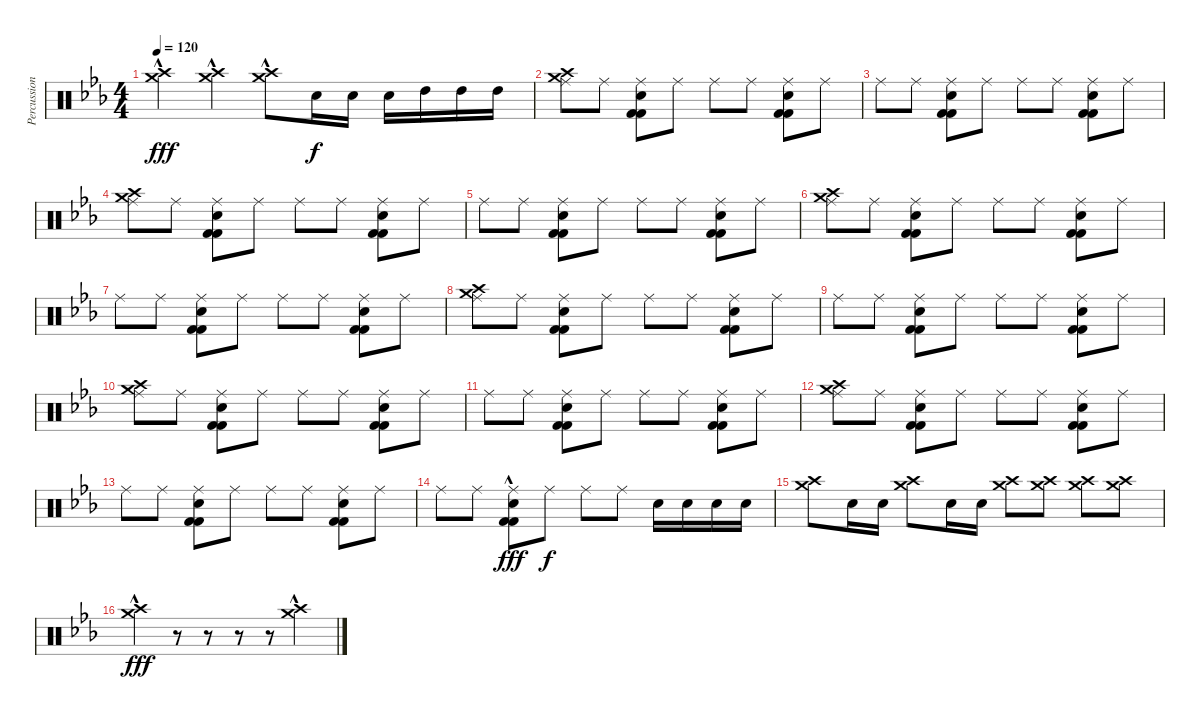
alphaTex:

\track ("Percussion" "Percussion") {instrument percussion}
\staff {score}
\articulation defaults
\ts (4 4)
\tempo 120
\clef neutral
\ks eb
("Crash high (hit)"{hac} "Crash medium (hit)"{hac}).4{dy fff} ("Crash high (hit)"{hac} "Crash medium (hit)"{hac}).4 ("Crash high (hit)"{hac} "Crash medium (hit)"{hac}).8 "Electric Snare (hit)".16{dy f} "Electric Snare (hit)".16 "Electric Snare (hit)".16 "High Tom (hit)".16 "High Tom (hit)".16 "High Tom (hit)".16 |
("Crash high (hit)" "Crash medium (hit)" "Ride (middle)").8 "Ride (middle)".8 ("Ride (middle)" "Electric Snare (hit)" "Kick (hit) 2" "Kick (hit) 2").8 "Ride (middle)".8 "Ride (middle)".8 "Ride (middle)".8 ("Ride (middle)" "Electric Snare (hit)" "Kick (hit) 2" "Kick (hit) 2").8 "Ride (middle)".8 |
"Ride (middle)".8 "Ride (middle)".8 ("Ride (middle)" "Electric Snare (hit)" "Kick (hit) 2" "Kick (hit) 2").8 "Ride (middle)".8 "Ride (middle)".8 "Ride (middle)".8 ("Ride (middle)" "Electric Snare (hit)" "Kick (hit) 2" "Kick (hit) 2").8 "Ride (middle)".8 |
("Crash high (hit)" "Crash medium (hit)" "Ride (middle)").8 "Ride (middle)".8 ("Ride (middle)" "Electric Snare (hit)" "Kick (hit) 2" "Kick (hit) 2").8 "Ride (middle)".8 "Ride (middle)".8 "Ride (middle)".8 ("Ride (middle)" "Electric Snare (hit)" "Kick (hit) 2" "Kick (hit) 2").8 "Ride (middle)".8 |
"Ride (middle)".8 "Ride (middle)".8 ("Ride (middle)" "Electric Snare (hit)" "Kick (hit) 2" "Kick (hit) 2").8 "Ride (middle)".8 "Ride (middle)".8 "Ride (middle)".8 ("Ride (middle)" "Electric Snare (hit)" "Kick (hit) 2" "Kick (hit) 2").8 "Ride (middle)".8 |
("Crash high (hit)" "Crash medium (hit)" "Ride (middle)").8 "Ride (middle)".8 ("Ride (middle)" "Electric Snare (hit)" "Kick (hit) 2" "Kick (hit) 2").8 "Ride (middle)".8 "Ride (middle)".8 "Ride (middle)".8 ("Ride (middle)" "Electric Snare (hit)" "Kick (hit) 2" "Kick (hit) 2").8 "Ride (middle)".8 |
"Ride (middle)".8 "Ride (middle)".8 ("Ride (middle)" "Electric Snare (hit)" "Kick (hit) 2" "Kick (hit) 2").8 "Ride (middle)".8 "Ride (middle)".8 "Ride (middle)".8 ("Ride (middle)" "Electric Snare (hit)" "Kick (hit) 2" "Kick (hit) 2").8 "Ride (middle)".8 |
("Crash high (hit)" "Crash medium (hit)" "Ride (middle)").8 "Ride (middle)".8 ("Ride (middle)" "Electric Snare (hit)" "Kick (hit) 2" "Kick (hit) 2").8 "Ride (middle)".8 "Ride (middle)".8 "Ride (middle)".8 ("Ride (middle)" "Electric Snare (hit)" "Kick (hit) 2" "Kick (hit) 2").8 "Ride (middle)".8 |
"Ride (middle)".8 "Ride (middle)".8 ("Ride (middle)" "Electric Snare (hit)" "Kick (hit) 2" "Kick (hit) 2").8 "Ride (middle)".8 "Ride (middle)".8 "Ride (middle)".8 ("Ride (middle)" "Electric Snare (hit)" "Kick (hit) 2" "Kick (hit) 2").8 "Ride (middle)".8 |
("Crash high (hit)" "Crash medium (hit)" "Ride (middle)").8 "Ride (middle)".8 ("Ride (middle)" "Electric Snare (hit)" "Kick (hit) 2" "Kick (hit) 2").8 "Ride (middle)".8 "Ride (middle)".8 "Ride (middle)".8 ("Ride (middle)" "Electric Snare (hit)" "Kick (hit) 2" "Kick (hit) 2").8 "Ride (middle)".8 |
"Ride (middle)".8 "Ride (middle)".8 ("Ride (middle)" "Electric Snare (hit)" "Kick (hit) 2" "Kick (hit) 2").8 "Ride (middle)".8 "Ride (middle)".8 "Ride (middle)".8 ("Ride (middle)" "Electric Snare (hit)" "Kick (hit) 2" "Kick (hit) 2").8 "Ride (middle)".8 |
("Crash high (hit)" "Crash medium (hit)" "Ride (middle)").8 "Ride (middle)".8 ("Ride (middle)" "Electric Snare (hit)" "Kick (hit) 2" "Kick (hit) 2").8 "Ride (middle)".8 "Ride (middle)".8 "Ride (middle)".8 ("Ride (middle)" "Electric Snare (hit)" "Kick (hit) 2" "Kick (hit) 2").8 "Ride (middle)".8 |
"Ride (middle)".8 "Ride (middle)".8 ("Ride (middle)" "Electric Snare (hit)" "Kick (hit) 2" "Kick (hit) 2").8 "Ride (middle)".8 "Ride (middle)".8 "Ride (middle)".8 ("Ride (middle)" "Electric Snare (hit)" "Kick (hit) 2" "Kick (hit) 2").8 "Ride (middle)".8 |
"Ride (middle)".8 "Ride (middle)".8 ("Ride (middle)" "Electric Snare (hit)" "Kick (hit) 2"{hac} "Kick (hit) 2").8{dy fff} "Ride (middle)".8{dy f} "Ride (middle)".8 "Ride (middle)".8 "Electric Snare (hit)".16 "Electric Snare (hit)".16 "Electric Snare (hit)".16 "Electric Snare (hit)".16 |
("Crash high (hit)" "Crash medium (hit)").8 "Electric Snare (hit)".16 "Electric Snare (hit)".16 ("Crash high (hit)" "Crash medium (hit)").8 "Electric Snare (hit)".16 "Electric Snare (hit)".16 ("Crash high (hit)" "Crash medium (hit)").8 ("Crash high (hit)" "Crash medium (hit)").8 ("Crash high (hit)" "Crash medium (hit)").8 ("Crash high (hit)" "Crash medium (hit)").8 |
("Crash high (hit)"{hac} "Crash medium (hit)"{hac}).4{dy fff} r.8 r.8 r.8 r.8 ("Crash high (hit)"{hac} "Crash medium (hit)"{hac}).4
